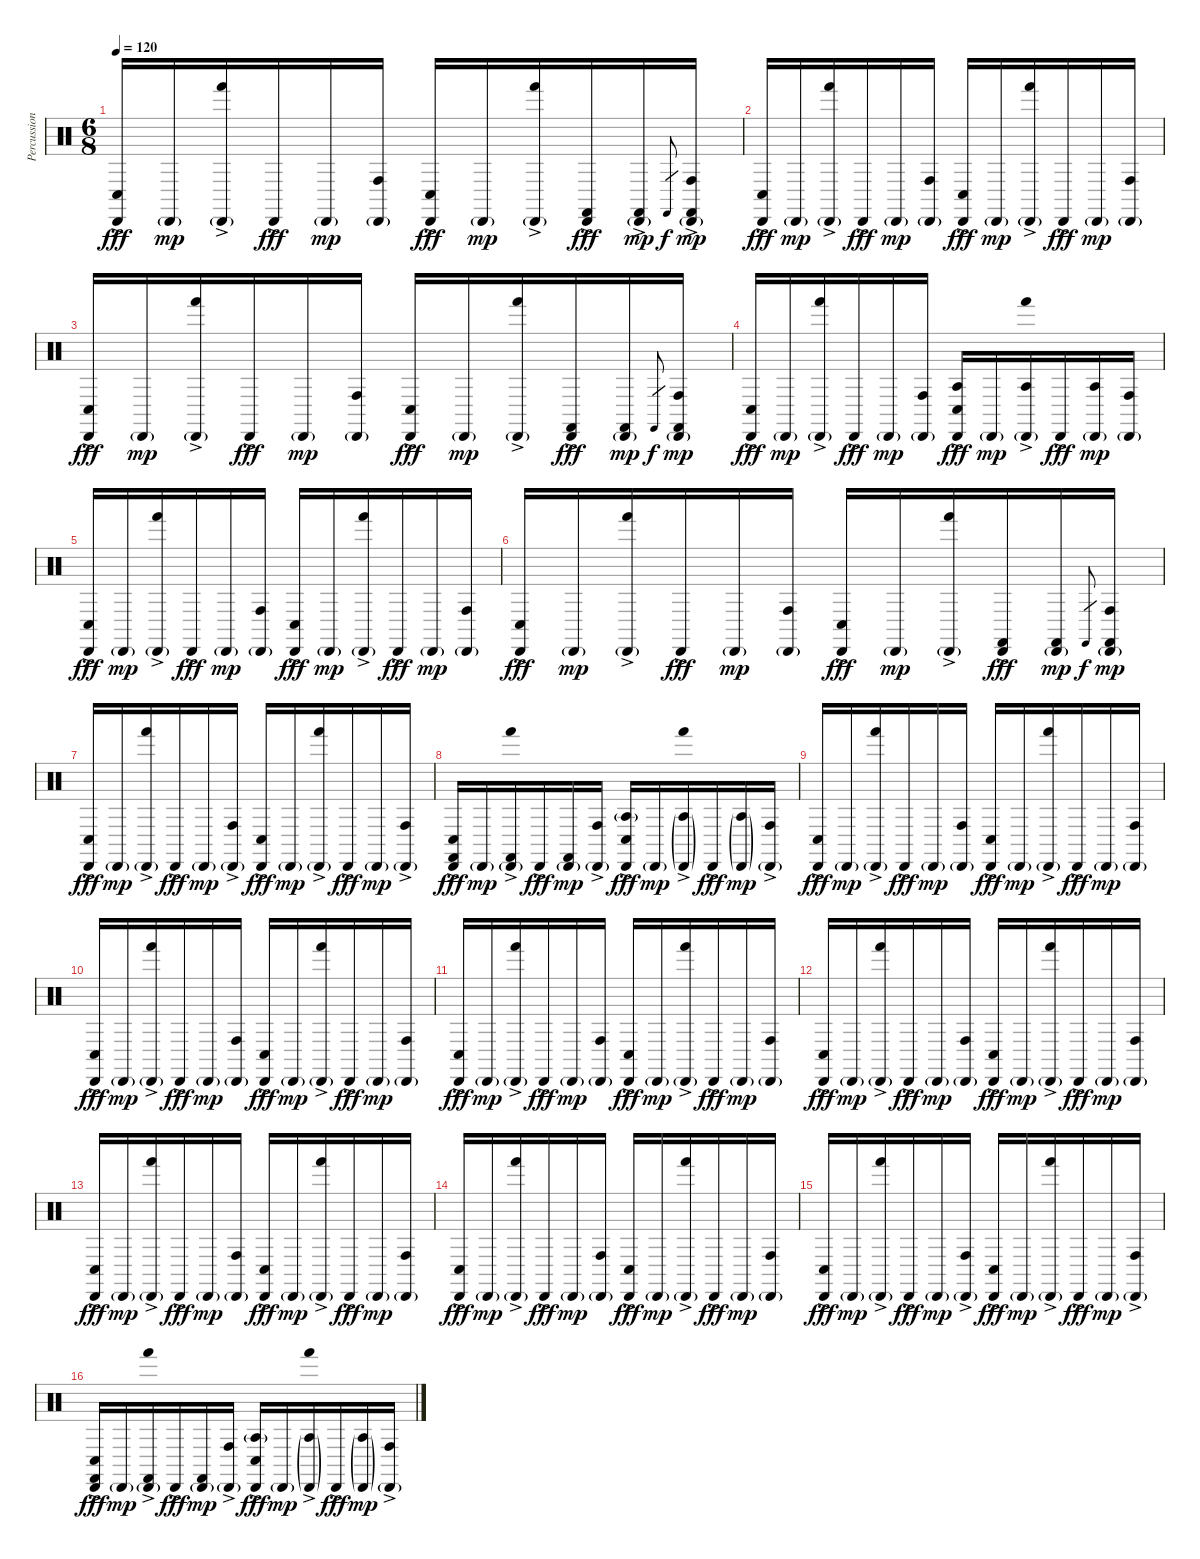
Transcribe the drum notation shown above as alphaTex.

\track ("Percussion" "Percussion") {instrument percussion}
\staff {score}
\articulation defaults
\ts (6 8)
\tempo 120
\clef neutral
\ks c
("Conga low (hit)"{ac} "Cabasa (hit)"{ac}).16{dy fff} "Cabasa (hit)"{g}.16{dy mp} ("Hand (hit)"{ac} "Cabasa (hit)"{g}).16 "Cabasa (hit)"{ac}.16{dy fff} "Cabasa (hit)"{g}.16{dy mp} ("Conga high (hit)" "Cabasa (hit)"{g}).16 ("Conga low (hit)"{ac} "Cabasa (hit)"{ac}).16{dy fff} "Cabasa (hit)"{g}.16{dy mp} ("Hand (hit)"{ac} "Cabasa (hit)"{g}).16 ("Castanets (hit)" "Cabasa (hit)"{ac}).16{dy fff} ("Castanets (hit)"{ac} "Cabasa (hit)"{g}).16{dy mp} "Castanets (hit)".8{gr dy f} ("Castanets (hit)"{ac} "Conga high (hit)" "Cabasa (hit)"{g}).16{dy mp} |
("Conga low (hit)"{ac} "Cabasa (hit)"{ac}).16{dy fff} "Cabasa (hit)"{g}.16{dy mp} ("Hand (hit)"{ac} "Cabasa (hit)"{g}).16 "Cabasa (hit)"{ac}.16{dy fff} "Cabasa (hit)"{g}.16{dy mp} ("Conga high (hit)" "Cabasa (hit)"{g}).16 ("Conga low (hit)"{ac} "Cabasa (hit)"{ac}).16{dy fff} "Cabasa (hit)"{g}.16{dy mp} ("Hand (hit)"{ac} "Cabasa (hit)"{g}).16 "Cabasa (hit)"{ac}.16{dy fff} "Cabasa (hit)"{g}.16{dy mp} ("Conga high (hit)" "Cabasa (hit)"{g}).16 |
("Conga low (hit)"{ac} "Cabasa (hit)"{ac}).16{dy fff} "Cabasa (hit)"{g}.16{dy mp} ("Hand (hit)"{ac} "Cabasa (hit)"{g}).16 "Cabasa (hit)"{ac}.16{dy fff} "Cabasa (hit)"{g}.16{dy mp} ("Conga high (hit)" "Cabasa (hit)"{g}).16 ("Conga low (hit)"{ac} "Cabasa (hit)"{ac}).16{dy fff} "Cabasa (hit)"{g}.16{dy mp} ("Hand (hit)"{ac} "Cabasa (hit)"{g}).16 ("Castanets (hit)" "Cabasa (hit)"{ac}).16{dy fff} ("Castanets (hit)" "Cabasa (hit)"{g}).16{dy mp} "Castanets (hit)".8{gr dy f} ("Castanets (hit)" "Conga high (hit)" "Cabasa (hit)"{g}).16{dy mp} |
("Conga low (hit)"{ac} "Cabasa (hit)"{ac}).16{dy fff} "Cabasa (hit)"{g}.16{dy mp} ("Hand (hit)"{ac} "Cabasa (hit)"{g}).16 "Cabasa (hit)"{ac}.16{dy fff} "Cabasa (hit)"{g}.16{dy mp} ("Conga high (hit)" "Cabasa (hit)"{g}).16 ("Agogo tow (hit)" "Conga low (hit)"{ac} "Cabasa (hit)"{ac}).16{dy fff} "Cabasa (hit)"{g}.16{dy mp} ("Agogo tow (hit)" "Hand (hit)"{ac} "Cabasa (hit)"{g}).16 "Cabasa (hit)"{ac}.16{dy fff} ("Agogo tow (hit)" "Cabasa (hit)"{g}).16{dy mp} ("Conga high (hit)" "Cabasa (hit)"{g}).16 |
("Conga low (hit)"{ac} "Cabasa (hit)"{ac}).16{dy fff} "Cabasa (hit)"{g}.16{dy mp} ("Hand (hit)"{ac} "Cabasa (hit)"{g}).16 "Cabasa (hit)"{ac}.16{dy fff} "Cabasa (hit)"{g}.16{dy mp} ("Conga high (hit)" "Cabasa (hit)"{g}).16 ("Conga low (hit)"{ac} "Cabasa (hit)"{ac}).16{dy fff} "Cabasa (hit)"{g}.16{dy mp} ("Hand (hit)"{ac} "Cabasa (hit)"{g}).16 "Cabasa (hit)"{ac}.16{dy fff} "Cabasa (hit)"{g}.16{dy mp} ("Conga high (hit)" "Cabasa (hit)"{g}).16 |
("Conga low (hit)"{ac} "Cabasa (hit)"{ac}).16{dy fff} "Cabasa (hit)"{g}.16{dy mp} ("Hand (hit)"{ac} "Cabasa (hit)"{g}).16 "Cabasa (hit)"{ac}.16{dy fff} "Cabasa (hit)"{g}.16{dy mp} ("Conga high (hit)" "Cabasa (hit)"{g}).16 ("Conga low (hit)"{ac} "Cabasa (hit)"{ac}).16{dy fff} "Cabasa (hit)"{g}.16{dy mp} ("Hand (hit)"{ac} "Cabasa (hit)"{g}).16 ("Castanets (hit)"{ac} "Cabasa (hit)"{ac}).16{dy fff} ("Castanets (hit)" "Cabasa (hit)"{g}).16{dy mp} "Castanets (hit)".8{gr dy f} ("Castanets (hit)" "Conga high (hit)" "Cabasa (hit)"{g}).16{dy mp} |
("Conga low (hit)"{ac} "Cabasa (hit)"{ac}).16{dy fff} "Cabasa (hit)"{g}.16{dy mp} ("Hand (hit)"{ac} "Cabasa (hit)"{g}).16 "Cabasa (hit)"{ac}.16{dy fff} "Cabasa (hit)"{g}.16{dy mp} ("Conga high (hit)"{ac} "Cabasa (hit)"{g}).16 ("Conga low (hit)"{ac} "Cabasa (hit)"{ac}).16{dy fff} "Cabasa (hit)"{g}.16{dy mp} ("Hand (hit)"{ac} "Cabasa (hit)"{g}).16 "Cabasa (hit)"{ac}.16{dy fff} "Cabasa (hit)"{g}.16{dy mp} ("Conga high (hit)"{ac} "Cabasa (hit)"{g}).16 |
("Castanets (hit)" "Conga low (hit)"{ac} "Cabasa (hit)"{ac}).16{dy fff} "Cabasa (hit)"{g}.16{dy mp} ("Castanets (hit)" "Hand (hit)"{ac} "Cabasa (hit)"{g}).16 "Cabasa (hit)"{ac}.16{dy fff} ("Castanets (hit)" "Cabasa (hit)"{g}).16{dy mp} ("Conga high (hit)"{ac} "Cabasa (hit)"{g}).16 ("Agogo tow (hit)"{g} "Conga low (hit)"{ac} "Cabasa (hit)"{ac}).16{dy fff} "Cabasa (hit)"{g}.16{dy mp} ("Agogo tow (hit)"{g} "Hand (hit)"{ac} "Cabasa (hit)"{g}).16 "Cabasa (hit)"{ac}.16{dy fff} ("Agogo tow (hit)"{g} "Cabasa (hit)"{g}).16{dy mp} ("Conga high (hit)"{ac} "Cabasa (hit)"{g}).16 |
("Conga low (hit)"{ac} "Cabasa (hit)"{ac}).16{dy fff} "Cabasa (hit)"{g}.16{dy mp} ("Hand (hit)"{ac} "Cabasa (hit)"{g}).16 "Cabasa (hit)"{ac}.16{dy fff} "Cabasa (hit)"{g}.16{dy mp} ("Conga high (hit)" "Cabasa (hit)"{g}).16 ("Conga low (hit)"{ac} "Cabasa (hit)"{ac}).16{dy fff} "Cabasa (hit)"{g}.16{dy mp} ("Hand (hit)"{ac} "Cabasa (hit)"{g}).16 "Cabasa (hit)"{ac}.16{dy fff} "Cabasa (hit)"{g}.16{dy mp} ("Conga high (hit)" "Cabasa (hit)"{g}).16 |
("Conga low (hit)"{ac} "Cabasa (hit)"{ac}).16{dy fff} "Cabasa (hit)"{g}.16{dy mp} ("Hand (hit)"{ac} "Cabasa (hit)"{g}).16 "Cabasa (hit)"{ac}.16{dy fff} "Cabasa (hit)"{g}.16{dy mp} ("Conga high (hit)" "Cabasa (hit)"{g}).16 ("Conga low (hit)"{ac} "Cabasa (hit)"{ac}).16{dy fff} "Cabasa (hit)"{g}.16{dy mp} ("Hand (hit)"{ac} "Cabasa (hit)"{g}).16 "Cabasa (hit)"{ac}.16{dy fff} "Cabasa (hit)"{g}.16{dy mp} ("Conga high (hit)" "Cabasa (hit)"{g}).16 |
("Conga low (hit)"{ac} "Cabasa (hit)"{ac}).16{dy fff} "Cabasa (hit)"{g}.16{dy mp} ("Hand (hit)"{ac} "Cabasa (hit)"{g}).16 "Cabasa (hit)"{ac}.16{dy fff} "Cabasa (hit)"{g}.16{dy mp} ("Conga high (hit)" "Cabasa (hit)"{g}).16 ("Conga low (hit)"{ac} "Cabasa (hit)"{ac}).16{dy fff} "Cabasa (hit)"{g}.16{dy mp} ("Hand (hit)"{ac} "Cabasa (hit)"{g}).16 "Cabasa (hit)"{ac}.16{dy fff} "Cabasa (hit)"{g}.16{dy mp} ("Conga high (hit)" "Cabasa (hit)"{g}).16 |
("Conga low (hit)"{ac} "Cabasa (hit)"{ac}).16{dy fff} "Cabasa (hit)"{g}.16{dy mp} ("Hand (hit)"{ac} "Cabasa (hit)"{g}).16 "Cabasa (hit)"{ac}.16{dy fff} "Cabasa (hit)"{g}.16{dy mp} ("Conga high (hit)" "Cabasa (hit)"{g}).16 ("Conga low (hit)"{ac} "Cabasa (hit)"{ac}).16{dy fff} "Cabasa (hit)"{g}.16{dy mp} ("Hand (hit)"{ac} "Cabasa (hit)"{g}).16 "Cabasa (hit)"{ac}.16{dy fff} "Cabasa (hit)"{g}.16{dy mp} ("Conga high (hit)" "Cabasa (hit)"{g}).16 |
("Conga low (hit)"{ac} "Cabasa (hit)"{ac}).16{dy fff} "Cabasa (hit)"{g}.16{dy mp} ("Hand (hit)"{ac} "Cabasa (hit)"{g}).16 "Cabasa (hit)"{ac}.16{dy fff} "Cabasa (hit)"{g}.16{dy mp} ("Conga high (hit)" "Cabasa (hit)"{g}).16 ("Conga low (hit)"{ac} "Cabasa (hit)"{ac}).16{dy fff} "Cabasa (hit)"{g}.16{dy mp} ("Hand (hit)"{ac} "Cabasa (hit)"{g}).16 "Cabasa (hit)"{ac}.16{dy fff} "Cabasa (hit)"{g}.16{dy mp} ("Conga high (hit)" "Cabasa (hit)"{g}).16 |
("Conga low (hit)"{ac} "Cabasa (hit)"{ac}).16{dy fff} "Cabasa (hit)"{g}.16{dy mp} ("Hand (hit)"{ac} "Cabasa (hit)"{g}).16 "Cabasa (hit)"{ac}.16{dy fff} "Cabasa (hit)"{g}.16{dy mp} ("Conga high (hit)" "Cabasa (hit)"{g}).16 ("Conga low (hit)"{ac} "Cabasa (hit)"{ac}).16{dy fff} "Cabasa (hit)"{g}.16{dy mp} ("Hand (hit)"{ac} "Cabasa (hit)"{g}).16 "Cabasa (hit)"{ac}.16{dy fff} "Cabasa (hit)"{g}.16{dy mp} ("Conga high (hit)" "Cabasa (hit)"{g}).16 |
("Conga low (hit)"{ac} "Cabasa (hit)"{ac}).16{dy fff} "Cabasa (hit)"{g}.16{dy mp} ("Hand (hit)"{ac} "Cabasa (hit)"{g}).16 "Cabasa (hit)"{ac}.16{dy fff} "Cabasa (hit)"{g}.16{dy mp} ("Conga high (hit)"{ac} "Cabasa (hit)"{g}).16 ("Conga low (hit)"{ac} "Cabasa (hit)"{ac}).16{dy fff} "Cabasa (hit)"{g}.16{dy mp} ("Hand (hit)"{ac} "Cabasa (hit)"{g}).16 "Cabasa (hit)"{ac}.16{dy fff} "Cabasa (hit)"{g}.16{dy mp} ("Conga high (hit)"{ac} "Cabasa (hit)"{g}).16 |
("Castanets (hit)" "Conga low (hit)"{ac} "Cabasa (hit)"{ac}).16{dy fff} "Cabasa (hit)"{g}.16{dy mp} ("Castanets (hit)" "Hand (hit)"{ac} "Cabasa (hit)"{g}).16 "Cabasa (hit)"{ac}.16{dy fff} ("Castanets (hit)" "Cabasa (hit)"{g}).16{dy mp} ("Conga high (hit)"{ac} "Cabasa (hit)"{g}).16 ("Agogo tow (hit)"{g} "Conga low (hit)"{ac} "Cabasa (hit)"{ac}).16{dy fff} "Cabasa (hit)"{g}.16{dy mp} ("Agogo tow (hit)"{g} "Hand (hit)"{ac} "Cabasa (hit)"{g}).16 "Cabasa (hit)"{ac}.16{dy fff} ("Agogo tow (hit)"{g} "Cabasa (hit)"{g}).16{dy mp} ("Conga high (hit)"{ac} "Cabasa (hit)"{g}).16
